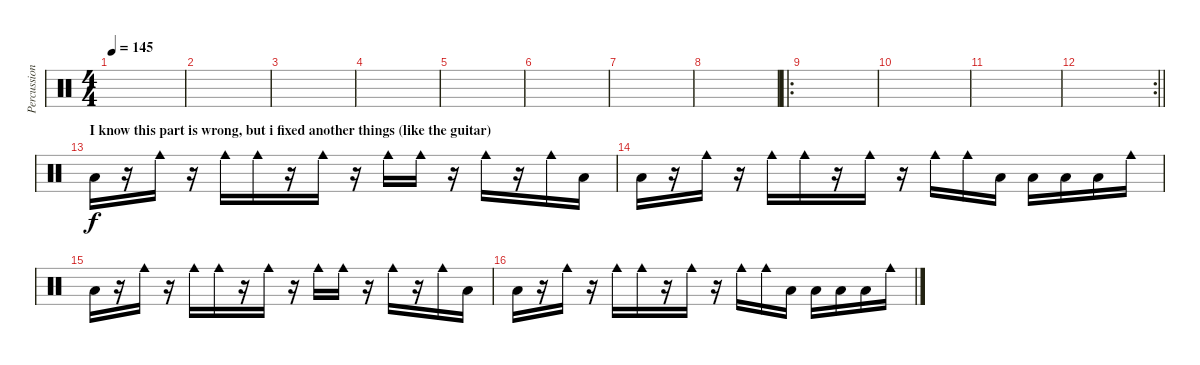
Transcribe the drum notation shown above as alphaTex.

\track ("Percussion" "Percussion") {instrument percussion}
\staff {score}
\articulation defaults
\ts (4 4)
\tempo 145
\clef neutral
\ks c
|
|
|
|
|
|
|
|
\ro
|
|
|
\rc 2
\barLineRight lightlight
|
\section ("" "I know this part is wrong, but i fixed another things (like the guitar)")
"Low Floor Tom (hit)".16 r.16 "Cowbell medium (hit)".16 r.16 "Cowbell medium (hit)".16 "Cowbell medium (hit)".16 r.16 "Cowbell medium (hit)".16 r.16 "Cowbell medium (hit)".16 "Cowbell medium (hit)".16 r.16 "Cowbell medium (hit)".16 r.16 "Cowbell medium (hit)".16 "Low Floor Tom (hit)".16 |
"Low Floor Tom (hit)".16 r.16 "Cowbell medium (hit)".16 r.16 "Cowbell medium (hit)".16 "Cowbell medium (hit)".16 r.16 "Cowbell medium (hit)".16 r.16 "Cowbell medium (hit)".16 "Cowbell medium (hit)".16 "Low Floor Tom (hit)".16 "Low Floor Tom (hit)".16 "Low Floor Tom (hit)".16 "Low Floor Tom (hit)".16 "Cowbell medium (hit)".16 |
"Low Floor Tom (hit)".16 r.16 "Cowbell medium (hit)".16 r.16 "Cowbell medium (hit)".16 "Cowbell medium (hit)".16 r.16 "Cowbell medium (hit)".16 r.16 "Cowbell medium (hit)".16 "Cowbell medium (hit)".16 r.16 "Cowbell medium (hit)".16 r.16 "Cowbell medium (hit)".16 "Low Floor Tom (hit)".16 |
"Low Floor Tom (hit)".16 r.16 "Cowbell medium (hit)".16 r.16 "Cowbell medium (hit)".16 "Cowbell medium (hit)".16 r.16 "Cowbell medium (hit)".16 r.16 "Cowbell medium (hit)".16 "Cowbell medium (hit)".16 "Low Floor Tom (hit)".16 "Low Floor Tom (hit)".16 "Low Floor Tom (hit)".16 "Low Floor Tom (hit)".16 "Cowbell medium (hit)".16
